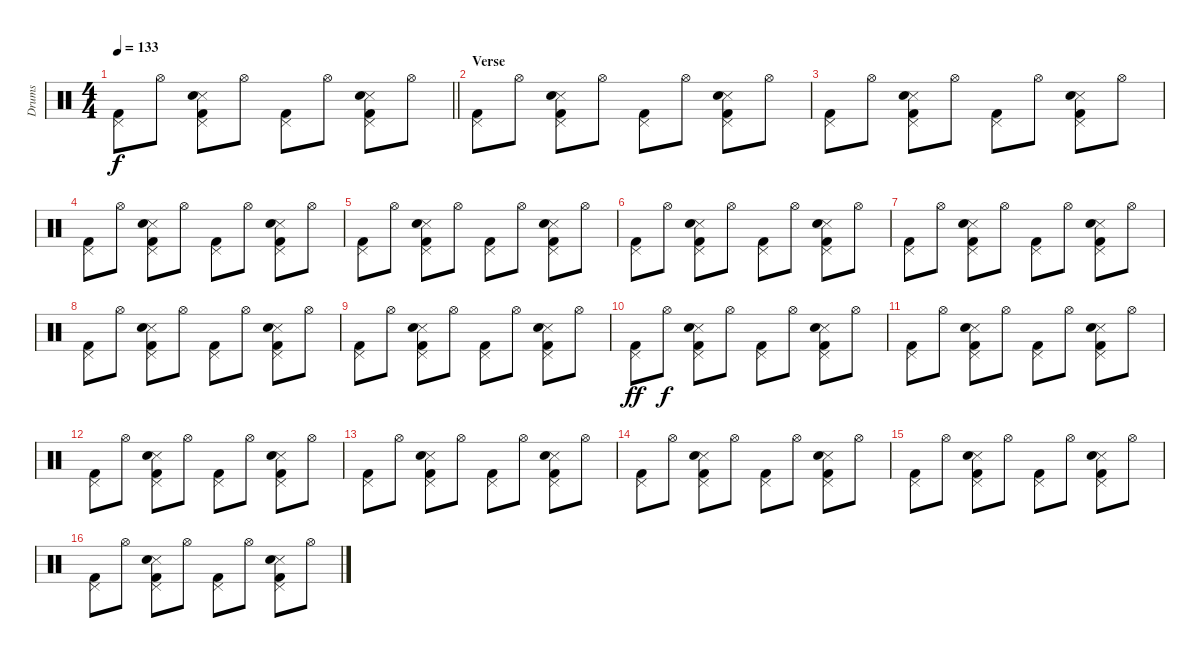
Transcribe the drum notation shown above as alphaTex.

\track ("Drums" "Drums") {instrument percussion}
\staff {score}
\articulation defaults
\ts (4 4)
\tempo 133
\clef neutral
\barLineRight lightlight
\ks c
("Pedal Hi-Hat (hit)" "Kick (hit) 2").8{dy f} "Hi-Hat (open)".8 ("Snare (side stick) 3" "Hand Clap (hit)" "Pedal Hi-Hat (hit)" "Kick (hit) 2").8 "Hi-Hat (open)".8 ("Pedal Hi-Hat (hit)" "Kick (hit) 2").8 "Hi-Hat (open)".8 ("Snare (side stick) 3" "Hand Clap (hit)" "Pedal Hi-Hat (hit)" "Kick (hit) 2").8 "Hi-Hat (open)".8 |
\section ("" "Verse")
("Pedal Hi-Hat (hit)" "Kick (hit) 2").8 "Hi-Hat (open)".8 ("Snare (side stick) 3" "Hand Clap (hit)" "Pedal Hi-Hat (hit)" "Kick (hit) 2").8 "Hi-Hat (open)".8 ("Pedal Hi-Hat (hit)" "Kick (hit) 2").8 "Hi-Hat (open)".8 ("Snare (side stick) 3" "Hand Clap (hit)" "Pedal Hi-Hat (hit)" "Kick (hit) 2").8 "Hi-Hat (open)".8 |
("Pedal Hi-Hat (hit)" "Kick (hit) 2").8 "Hi-Hat (open)".8 ("Snare (side stick) 3" "Hand Clap (hit)" "Pedal Hi-Hat (hit)" "Kick (hit) 2").8 "Hi-Hat (open)".8 ("Pedal Hi-Hat (hit)" "Kick (hit) 2").8 "Hi-Hat (open)".8 ("Snare (side stick) 3" "Hand Clap (hit)" "Pedal Hi-Hat (hit)" "Kick (hit) 2").8 "Hi-Hat (open)".8 |
("Pedal Hi-Hat (hit)" "Kick (hit) 2").8 "Hi-Hat (open)".8 ("Snare (side stick) 3" "Hand Clap (hit)" "Pedal Hi-Hat (hit)" "Kick (hit) 2").8 "Hi-Hat (open)".8 ("Pedal Hi-Hat (hit)" "Kick (hit) 2").8 "Hi-Hat (open)".8 ("Snare (side stick) 3" "Hand Clap (hit)" "Pedal Hi-Hat (hit)" "Kick (hit) 2").8 "Hi-Hat (open)".8 |
("Pedal Hi-Hat (hit)" "Kick (hit) 2").8 "Hi-Hat (open)".8 ("Snare (side stick) 3" "Hand Clap (hit)" "Pedal Hi-Hat (hit)" "Kick (hit) 2").8 "Hi-Hat (open)".8 ("Pedal Hi-Hat (hit)" "Kick (hit) 2").8 "Hi-Hat (open)".8 ("Snare (side stick) 3" "Hand Clap (hit)" "Pedal Hi-Hat (hit)" "Kick (hit) 2").8 "Hi-Hat (open)".8 |
("Pedal Hi-Hat (hit)" "Kick (hit) 2").8 "Hi-Hat (open)".8 ("Snare (side stick) 3" "Hand Clap (hit)" "Pedal Hi-Hat (hit)" "Kick (hit) 2").8 "Hi-Hat (open)".8 ("Pedal Hi-Hat (hit)" "Kick (hit) 2").8 "Hi-Hat (open)".8 ("Snare (side stick) 3" "Hand Clap (hit)" "Pedal Hi-Hat (hit)" "Kick (hit) 2").8 "Hi-Hat (open)".8 |
("Pedal Hi-Hat (hit)" "Kick (hit) 2").8 "Hi-Hat (open)".8 ("Snare (side stick) 3" "Hand Clap (hit)" "Pedal Hi-Hat (hit)" "Kick (hit) 2").8 "Hi-Hat (open)".8 ("Pedal Hi-Hat (hit)" "Kick (hit) 2").8 "Hi-Hat (open)".8 ("Snare (side stick) 3" "Hand Clap (hit)" "Pedal Hi-Hat (hit)" "Kick (hit) 2").8 "Hi-Hat (open)".8 |
("Pedal Hi-Hat (hit)" "Kick (hit) 2").8 "Hi-Hat (open)".8 ("Snare (side stick) 3" "Hand Clap (hit)" "Pedal Hi-Hat (hit)" "Kick (hit) 2").8 "Hi-Hat (open)".8 ("Pedal Hi-Hat (hit)" "Kick (hit) 2").8 "Hi-Hat (open)".8 ("Snare (side stick) 3" "Hand Clap (hit)" "Pedal Hi-Hat (hit)" "Kick (hit) 2").8 "Hi-Hat (open)".8 |
("Pedal Hi-Hat (hit)" "Kick (hit) 2").8 "Hi-Hat (open)".8 ("Snare (side stick) 3" "Hand Clap (hit)" "Pedal Hi-Hat (hit)" "Kick (hit) 2").8 "Hi-Hat (open)".8 ("Pedal Hi-Hat (hit)" "Kick (hit) 2").8 "Hi-Hat (open)".8 ("Snare (side stick) 3" "Hand Clap (hit)" "Pedal Hi-Hat (hit)" "Kick (hit) 2").8 "Hi-Hat (open)".8 |
("Pedal Hi-Hat (hit)" "Kick (hit) 2").8{dy ff} "Hi-Hat (open)".8{dy f} ("Snare (side stick) 3" "Hand Clap (hit)" "Pedal Hi-Hat (hit)" "Kick (hit) 2").8 "Hi-Hat (open)".8 ("Pedal Hi-Hat (hit)" "Kick (hit) 2").8 "Hi-Hat (open)".8 ("Snare (side stick) 3" "Hand Clap (hit)" "Pedal Hi-Hat (hit)" "Kick (hit) 2").8 "Hi-Hat (open)".8 |
("Pedal Hi-Hat (hit)" "Kick (hit) 2").8 "Hi-Hat (open)".8 ("Snare (side stick) 3" "Hand Clap (hit)" "Pedal Hi-Hat (hit)" "Kick (hit) 2").8 "Hi-Hat (open)".8 ("Pedal Hi-Hat (hit)" "Kick (hit) 2").8 "Hi-Hat (open)".8 ("Snare (side stick) 3" "Hand Clap (hit)" "Pedal Hi-Hat (hit)" "Kick (hit) 2").8 "Hi-Hat (open)".8 |
("Pedal Hi-Hat (hit)" "Kick (hit) 2").8 "Hi-Hat (open)".8 ("Snare (side stick) 3" "Hand Clap (hit)" "Pedal Hi-Hat (hit)" "Kick (hit) 2").8 "Hi-Hat (open)".8 ("Pedal Hi-Hat (hit)" "Kick (hit) 2").8 "Hi-Hat (open)".8 ("Snare (side stick) 3" "Hand Clap (hit)" "Pedal Hi-Hat (hit)" "Kick (hit) 2").8 "Hi-Hat (open)".8 |
("Pedal Hi-Hat (hit)" "Kick (hit) 2").8 "Hi-Hat (open)".8 ("Snare (side stick) 3" "Hand Clap (hit)" "Pedal Hi-Hat (hit)" "Kick (hit) 2").8 "Hi-Hat (open)".8 ("Pedal Hi-Hat (hit)" "Kick (hit) 2").8 "Hi-Hat (open)".8 ("Snare (side stick) 3" "Hand Clap (hit)" "Pedal Hi-Hat (hit)" "Kick (hit) 2").8 "Hi-Hat (open)".8 |
("Pedal Hi-Hat (hit)" "Kick (hit) 2").8 "Hi-Hat (open)".8 ("Snare (side stick) 3" "Hand Clap (hit)" "Pedal Hi-Hat (hit)" "Kick (hit) 2").8 "Hi-Hat (open)".8 ("Pedal Hi-Hat (hit)" "Kick (hit) 2").8 "Hi-Hat (open)".8 ("Snare (side stick) 3" "Hand Clap (hit)" "Pedal Hi-Hat (hit)" "Kick (hit) 2").8 "Hi-Hat (open)".8 |
("Pedal Hi-Hat (hit)" "Kick (hit) 2").8 "Hi-Hat (open)".8 ("Snare (side stick) 3" "Hand Clap (hit)" "Pedal Hi-Hat (hit)" "Kick (hit) 2").8 "Hi-Hat (open)".8 ("Pedal Hi-Hat (hit)" "Kick (hit) 2").8 "Hi-Hat (open)".8 ("Snare (side stick) 3" "Hand Clap (hit)" "Pedal Hi-Hat (hit)" "Kick (hit) 2").8 "Hi-Hat (open)".8 |
("Pedal Hi-Hat (hit)" "Kick (hit) 2").8 "Hi-Hat (open)".8 ("Snare (side stick) 3" "Hand Clap (hit)" "Pedal Hi-Hat (hit)" "Kick (hit) 2").8 "Hi-Hat (open)".8 ("Pedal Hi-Hat (hit)" "Kick (hit) 2").8 "Hi-Hat (open)".8 ("Snare (side stick) 3" "Hand Clap (hit)" "Pedal Hi-Hat (hit)" "Kick (hit) 2").8 "Hi-Hat (open)".8
